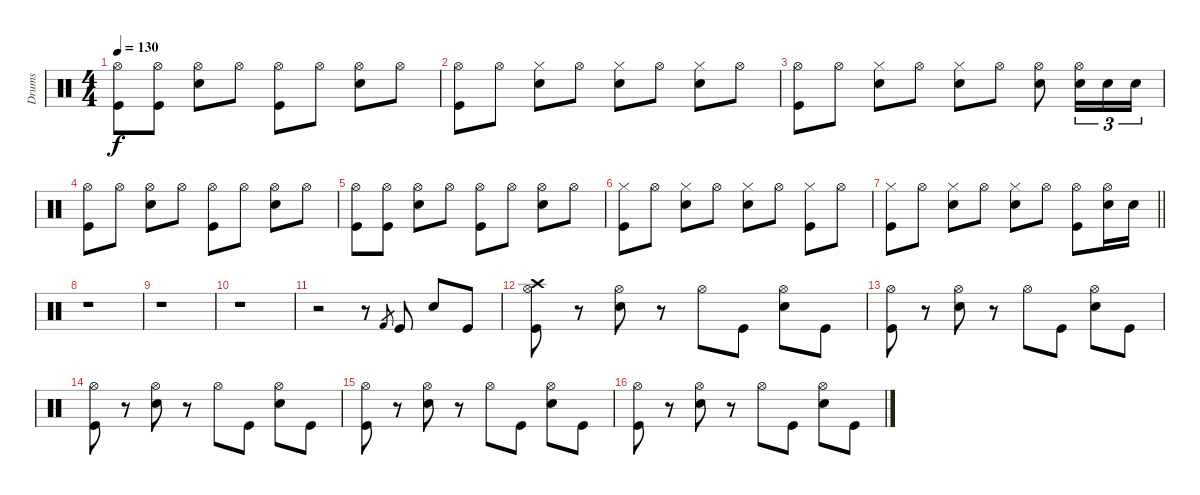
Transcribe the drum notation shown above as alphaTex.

\track ("Drums" "Drums") {instrument percussion}
\staff {score}
\articulation defaults
\ts (4 4)
\tempo 130
\clef neutral
\ks c
("Hi-Hat (open)" "Kick (hit)").8{dy f} ("Hi-Hat (open)" "Kick (hit)").8 ("Hi-Hat (open)" "Snare (hit) 2").8 "Hi-Hat (open)".8 ("Hi-Hat (open)" "Kick (hit)").8 "Hi-Hat (open)".8 ("Hi-Hat (open)" "Snare (hit) 2").8 "Hi-Hat (open)".8 |
("Hi-Hat (open)" "Kick (hit)").8 "Hi-Hat (open)".8 ("Hi-Hat (closed)" "Snare (hit) 2").8 "Hi-Hat (open)".8 ("Hi-Hat (closed)" "Snare (hit) 2").8 "Hi-Hat (open)".8 ("Hi-Hat (closed)" "Snare (hit) 2").8 "Hi-Hat (open)".8 |
("Hi-Hat (open)" "Kick (hit)").8 "Hi-Hat (open)".8 ("Hi-Hat (closed)" "Snare (hit) 2").8 "Hi-Hat (open)".8 ("Hi-Hat (closed)" "Snare (hit) 2").8 "Hi-Hat (open)".8 ("Hi-Hat (open)" "Snare (hit) 2").8 ("Hi-Hat (open)" "Snare (hit) 2").16{tu (3 2)} "Snare (hit) 2".16{tu (3 2)} "Snare (hit) 2".16{tu (3 2)} |
("Hi-Hat (open)" "Kick (hit)").8 "Hi-Hat (open)".8 ("Hi-Hat (open)" "Snare (hit) 2").8 "Hi-Hat (open)".8 ("Hi-Hat (open)" "Kick (hit)").8 "Hi-Hat (open)".8 ("Hi-Hat (open)" "Snare (hit) 2").8 "Hi-Hat (open)".8 |
("Hi-Hat (open)" "Kick (hit)").8 ("Hi-Hat (open)" "Kick (hit)").8 ("Hi-Hat (open)" "Snare (hit) 2").8 "Hi-Hat (open)".8 ("Hi-Hat (open)" "Kick (hit)").8 "Hi-Hat (open)".8 ("Hi-Hat (open)" "Snare (hit) 2").8 "Hi-Hat (open)".8 |
("Hi-Hat (closed)" "Kick (hit)").8 "Hi-Hat (open)".8 ("Hi-Hat (closed)" "Snare (hit) 2").8 "Hi-Hat (open)".8 ("Hi-Hat (closed)" "Snare (hit) 2").8 "Hi-Hat (open)".8 ("Hi-Hat (closed)" "Kick (hit)").8 "Hi-Hat (open)".8 |
\barLineRight lightlight
("Hi-Hat (closed)" "Kick (hit)").8 "Hi-Hat (open)".8 ("Hi-Hat (closed)" "Snare (hit) 2").8 "Hi-Hat (open)".8 ("Hi-Hat (closed)" "Snare (hit) 2").8 "Hi-Hat (open)".8 ("Hi-Hat (open)" "Kick (hit)").8 ("Hi-Hat (open)" "Snare (hit) 2").16 "Snare (hit) 2".16 |
\section ("" "")
r.1 |
r.1 |
r.1 |
r.2 r.8 "Kick (hit) 2".8{gr} "Kick (hit)".8 "Snare (hit) 2".8 "Kick (hit)".8 |
("Crash high (hit)" "Hi-Hat (open)" "Kick (hit)").8 r.8 ("Hi-Hat (open)" "Snare (hit) 2").8 r.8 "Hi-Hat (open)".8 "Kick (hit)".8 ("Hi-Hat (open)" "Snare (hit) 2").8 "Kick (hit)".8 |
("Hi-Hat (open)" "Kick (hit)").8 r.8 ("Hi-Hat (open)" "Snare (hit) 2").8 r.8 "Hi-Hat (open)".8 "Kick (hit)".8 ("Hi-Hat (open)" "Snare (hit) 2").8 "Kick (hit)".8 |
("Hi-Hat (open)" "Kick (hit)").8 r.8 ("Hi-Hat (open)" "Snare (hit) 2").8 r.8 "Hi-Hat (open)".8 "Kick (hit)".8 ("Hi-Hat (open)" "Snare (hit) 2").8 "Kick (hit)".8 |
("Hi-Hat (open)" "Kick (hit)").8 r.8 ("Hi-Hat (open)" "Snare (hit) 2").8 r.8 "Hi-Hat (open)".8 "Kick (hit)".8 ("Hi-Hat (open)" "Snare (hit) 2").8 "Kick (hit)".8 |
("Hi-Hat (open)" "Kick (hit)").8 r.8 ("Hi-Hat (open)" "Snare (hit) 2").8 r.8 "Hi-Hat (open)".8 "Kick (hit)".8 ("Hi-Hat (open)" "Snare (hit) 2").8 "Kick (hit)".8
